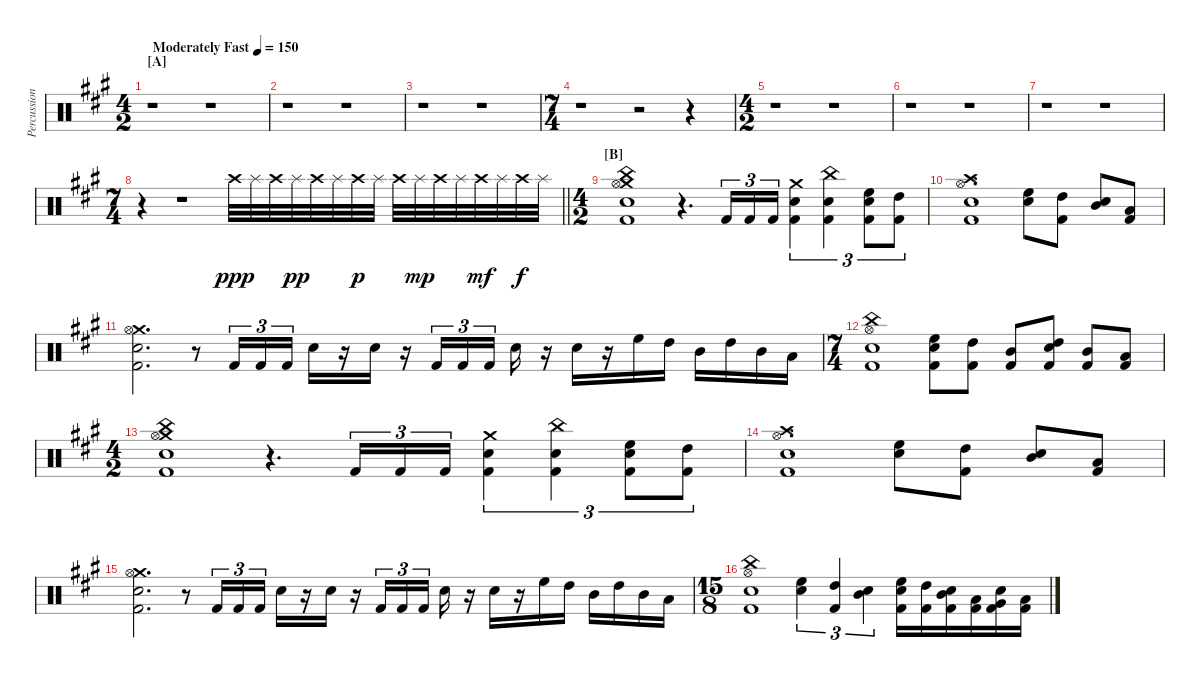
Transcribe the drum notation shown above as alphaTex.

\track ("Percussion" "Percussion") {instrument percussion}
\staff {score}
\articulation defaults
\ts (4 2)
\section ("" "[A]")
\tempo (150 "Moderately Fast")
\clef neutral
\ks f#minor
r.1{dy ppp} r.1 |
r.1 r.1 |
r.1 r.1 |
\ts (7 4)
r.1 r.2 r.4 |
\ts (4 2)
r.1 r.1 |
r.1 r.1 |
r.1 r.1 |
\ts (7 4)
\barLineRight lightlight
r.4 r.1 "Crash high (hit)".32 "Splash (hit)".32 "Crash high (hit)".32 "Splash (hit)".32{dy pp} "Crash high (hit)".32 "Splash (hit)".32 "Crash high (hit)".32{dy p} "Splash (hit)".32 "Crash high (hit)".32 "Splash (hit)".32{dy mp} "Crash high (hit)".32 "Splash (hit)".32 "Crash high (hit)".32{dy mf} "Splash (hit)".32 "Crash high (hit)".32{dy f} "Splash (hit)".32 |
\ts (4 2)
\section ("" "[B]")
("Crash medium (hit)" "China (hit)" "Hi-Hat (open)" "Snare (hit) 2" "Kick (hit) 2").1 r.4{d} "Kick (hit) 2".16{tu (3 2)} "Kick (hit) 2".16{tu (3 2)} "Kick (hit) 2".16{tu (3 2)} ("Crash medium (hit)" "Snare (hit) 2" "Kick (hit) 2").4{tu (3 2)} ("China (hit)" "Snare (hit) 2" "Kick (hit) 2").4{tu (3 2)} ("High Floor Tom (hit)" "Snare (hit) 2" "Kick (hit) 2").8{tu (3 2)} ("High Tom (hit)" "Kick (hit) 2").8{tu (3 2)} |
("Crash high (hit)" "Hi-Hat (open)" "Snare (hit) 2" "Kick (hit) 2").1{d} ("High Floor Tom (hit)" "Snare (hit) 2").8 ("High Tom (hit)" "Kick (hit) 2").8 ("Mid Tom (hit)" "Snare (hit) 2").8 ("Low Tom (hit)" "Kick (hit) 2").8 |
("Crash medium (hit)" "Hi-Hat (open)" "Snare (hit) 2" "Kick (hit) 2").2{d} r.8 "Kick (hit) 2".16{tu (3 2)} "Kick (hit) 2".16{tu (3 2)} "Kick (hit) 2".16{tu (3 2)} "Snare (hit) 2".16 r.16 "Snare (hit) 2".16 r.16 "Kick (hit) 2".16{tu (3 2)} "Kick (hit) 2".16{tu (3 2)} "Kick (hit) 2".16{tu (3 2) beam splitsecondary} "Snare (hit) 2".16 r.16 "Snare (hit) 2".16 r.16 "High Floor Tom (hit)".16 "High Tom (hit)".16 "Mid Tom (hit)".16 "High Tom (hit)".16 "Mid Tom (hit)".16 "Low Tom (hit)".16 |
\ts (7 4)
("China (hit)" "Hi-Hat (open)" "Snare (hit) 2" "Kick (hit) 2").1 ("High Floor Tom (hit)" "Snare (hit) 2" "Kick (hit) 2").8 ("High Tom (hit)" "Kick (hit) 2").8 ("Mid Tom (hit)" "Kick (hit) 2").8 ("High Tom (hit)" "Snare (hit) 2" "Kick (hit) 2").8 ("Mid Tom (hit)" "Kick (hit) 2").8 ("Low Tom (hit)" "Kick (hit) 2").8 |
\ts (4 2)
("Crash medium (hit)" "China (hit)" "Hi-Hat (open)" "Snare (hit) 2" "Kick (hit) 2").1 r.4{d} "Kick (hit) 2".16{tu (3 2)} "Kick (hit) 2".16{tu (3 2)} "Kick (hit) 2".16{tu (3 2)} ("Crash medium (hit)" "Snare (hit) 2" "Kick (hit) 2").4{tu (3 2)} ("China (hit)" "Snare (hit) 2" "Kick (hit) 2").4{tu (3 2)} ("High Floor Tom (hit)" "Snare (hit) 2" "Kick (hit) 2").8{tu (3 2)} ("High Tom (hit)" "Kick (hit) 2").8{tu (3 2)} |
("Crash high (hit)" "Hi-Hat (open)" "Snare (hit) 2" "Kick (hit) 2").1{d} ("High Floor Tom (hit)" "Snare (hit) 2").8 ("High Tom (hit)" "Kick (hit) 2").8 ("Mid Tom (hit)" "Snare (hit) 2").8 ("Low Tom (hit)" "Kick (hit) 2").8 |
("Crash medium (hit)" "Hi-Hat (open)" "Snare (hit) 2" "Kick (hit) 2").2{d} r.8 "Kick (hit) 2".16{tu (3 2)} "Kick (hit) 2".16{tu (3 2)} "Kick (hit) 2".16{tu (3 2)} "Snare (hit) 2".16 r.16 "Snare (hit) 2".16 r.16 "Kick (hit) 2".16{tu (3 2)} "Kick (hit) 2".16{tu (3 2)} "Kick (hit) 2".16{tu (3 2) beam splitsecondary} "Snare (hit) 2".16 r.16 "Snare (hit) 2".16 r.16 "High Floor Tom (hit)".16 "High Tom (hit)".16 "Mid Tom (hit)".16 "High Tom (hit)".16 "Mid Tom (hit)".16 "Low Tom (hit)".16 |
\ts (15 8)
("China (hit)" "Hi-Hat (open)" "Snare (hit) 2" "Kick (hit) 2").1 ("High Floor Tom (hit)" "Snare (hit) 2").4{tu (3 2)} ("High Tom (hit)" "Kick (hit) 2").4{tu (3 2)} ("Mid Tom (hit)" "Snare (hit) 2").4{tu (3 2)} ("High Floor Tom (hit)" "Snare (hit) 2" "Kick (hit) 2").16 ("High Tom (hit)" "Kick (hit) 2").16 ("Mid Tom (hit)" "Snare (hit) 2" "Kick (hit) 2").16 ("Low Tom (hit)" "Kick (hit) 2").16 ("Snare (hit) 2" "Very Low Tom (hit)" "Kick (hit) 2").16 ("Low Floor Tom (hit)" "Kick (hit) 2").16
